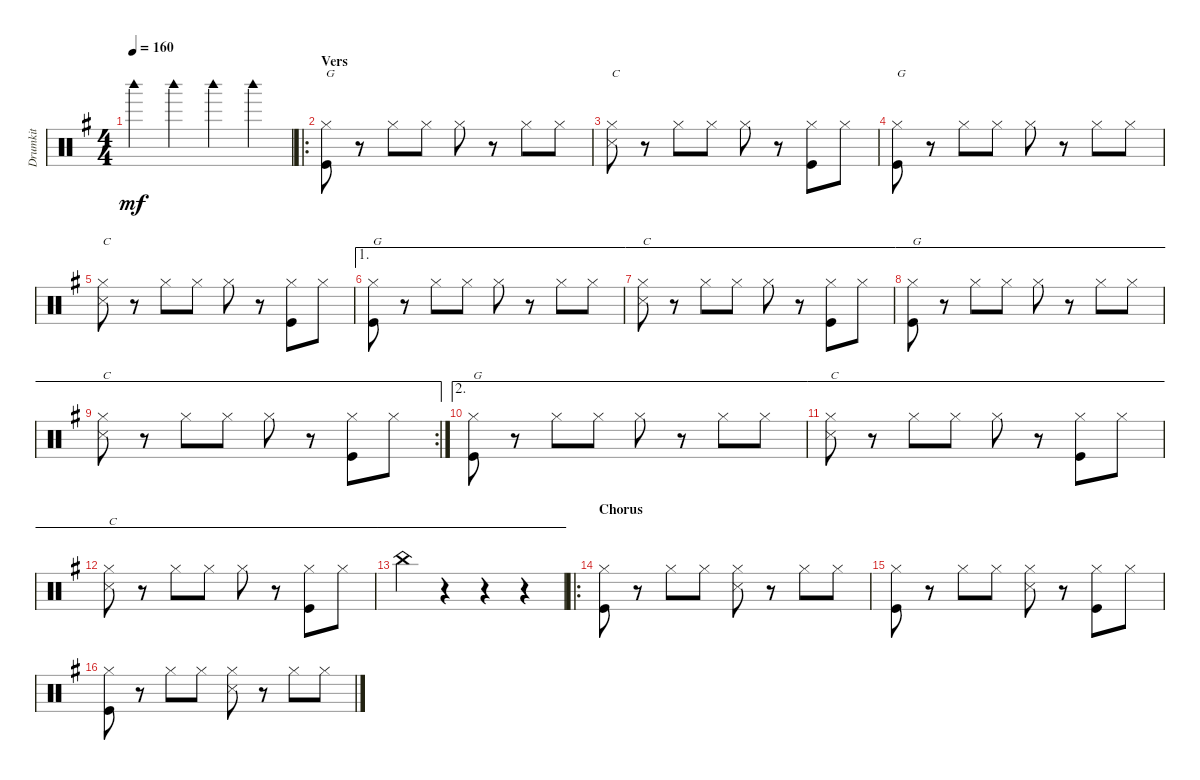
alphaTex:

\track ("Drumkit" "Drumkit") {instrument percussion}
\staff {score}
\articulation defaults
\ts (4 4)
\tempo 160
\clef neutral
\ks g "Woodblock high (hit)".4{dy mf} "Woodblock high (hit)".4 "Woodblock high (hit)".4 "Woodblock high (hit)".4
|
\ro
\section ("" "Vers")
("Hi-Hat (closed)" "Kick (hit)").8{txt "G"} r.8 "Hi-Hat (closed)".8 "Hi-Hat (closed)".8 "Hi-Hat (closed)".8 r.8 "Hi-Hat (closed)".8 "Hi-Hat (closed)".8 |
("Hi-Hat (closed)" "Snare (side stick) 3").8{txt "C"} r.8 "Hi-Hat (closed)".8 "Hi-Hat (closed)".8 "Hi-Hat (closed)".8 r.8 ("Hi-Hat (closed)" "Kick (hit)").8 "Hi-Hat (closed)".8 |
("Hi-Hat (closed)" "Kick (hit)").8{txt "G"} r.8 "Hi-Hat (closed)".8 "Hi-Hat (closed)".8 "Hi-Hat (closed)".8 r.8 "Hi-Hat (closed)".8 "Hi-Hat (closed)".8 |
("Hi-Hat (closed)" "Snare (side stick) 3").8{txt "C"} r.8 "Hi-Hat (closed)".8 "Hi-Hat (closed)".8 "Hi-Hat (closed)".8 r.8 ("Hi-Hat (closed)" "Kick (hit)").8 "Hi-Hat (closed)".8 |
\ae 1
("Hi-Hat (closed)" "Kick (hit)").8{txt "G"} r.8 "Hi-Hat (closed)".8 "Hi-Hat (closed)".8 "Hi-Hat (closed)".8 r.8 "Hi-Hat (closed)".8 "Hi-Hat (closed)".8 |
\ae 1
("Hi-Hat (closed)" "Snare (side stick) 3").8{txt "C"} r.8 "Hi-Hat (closed)".8 "Hi-Hat (closed)".8 "Hi-Hat (closed)".8 r.8 ("Hi-Hat (closed)" "Kick (hit)").8 "Hi-Hat (closed)".8 |
\ae 1
("Hi-Hat (closed)" "Kick (hit)").8{txt "G"} r.8 "Hi-Hat (closed)".8 "Hi-Hat (closed)".8 "Hi-Hat (closed)".8 r.8 "Hi-Hat (closed)".8 "Hi-Hat (closed)".8 |
\ae 1
\rc 2
("Hi-Hat (closed)" "Snare (side stick) 3").8{txt "C"} r.8 "Hi-Hat (closed)".8 "Hi-Hat (closed)".8 "Hi-Hat (closed)".8 r.8 ("Hi-Hat (closed)" "Kick (hit)").8 "Hi-Hat (closed)".8 |
\ae 2
("Hi-Hat (closed)" "Kick (hit)").8{txt "G"} r.8 "Hi-Hat (closed)".8 "Hi-Hat (closed)".8 "Hi-Hat (closed)".8 r.8 "Hi-Hat (closed)".8 "Hi-Hat (closed)".8 |
\ae 2
("Hi-Hat (closed)" "Snare (side stick) 3").8{txt "C"} r.8 "Hi-Hat (closed)".8 "Hi-Hat (closed)".8 "Hi-Hat (closed)".8 r.8 ("Hi-Hat (closed)" "Kick (hit)").8 "Hi-Hat (closed)".8 |
\ae 2
("Hi-Hat (closed)" "Snare (side stick) 3").8{txt "C"} r.8 "Hi-Hat (closed)".8 "Hi-Hat (closed)".8 "Hi-Hat (closed)".8 r.8 ("Hi-Hat (closed)" "Kick (hit)").8 "Hi-Hat (closed)".8 |
\ae 2 "China (hit)".4
r.4 r.4 r.4 |
\ro
\section ("" "Chorus")
("Hi-Hat (closed)" "Kick (hit)").8 r.8 "Hi-Hat (closed)".8 "Hi-Hat (closed)".8 ("Hi-Hat (closed)" "Snare (side stick) 3").8 r.8 "Hi-Hat (closed)".8 "Hi-Hat (closed)".8 |
("Hi-Hat (closed)" "Kick (hit)").8 r.8 "Hi-Hat (closed)".8 "Hi-Hat (closed)".8 ("Hi-Hat (closed)" "Snare (side stick) 3").8 r.8 ("Hi-Hat (closed)" "Kick (hit)").8 "Hi-Hat (closed)".8 |
("Hi-Hat (closed)" "Kick (hit)").8 r.8 "Hi-Hat (closed)".8 "Hi-Hat (closed)".8 ("Hi-Hat (closed)" "Snare (side stick) 3").8 r.8 "Hi-Hat (closed)".8 "Hi-Hat (closed)".8
